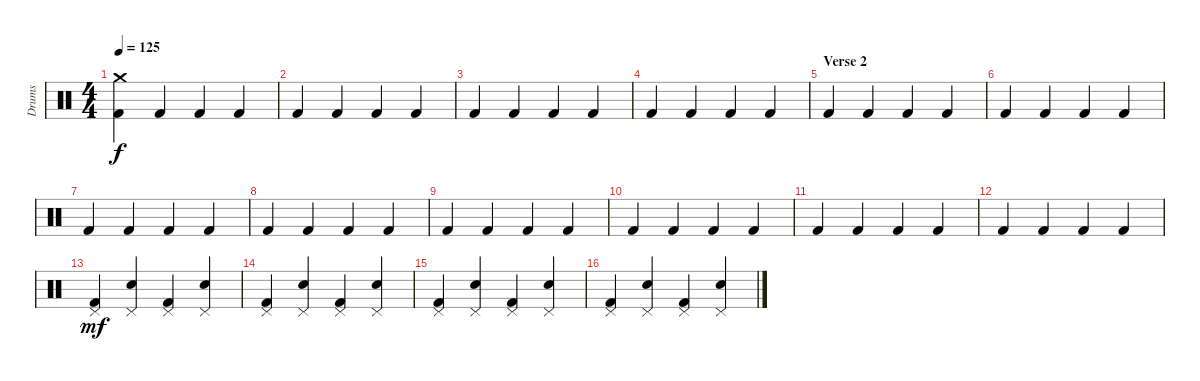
\track ("Drums" "Drums") {instrument percussion}
\staff {score}
\articulation defaults
\ts (4 4)
\tempo 125
\clef neutral
\ks c
("Crash medium (hit)" "Kick (hit) 2").4{dy f} "Kick (hit) 2".4 "Kick (hit) 2".4 "Kick (hit) 2".4 |
"Kick (hit) 2".4 "Kick (hit) 2".4 "Kick (hit) 2".4 "Kick (hit) 2".4 |
"Kick (hit) 2".4 "Kick (hit) 2".4 "Kick (hit) 2".4 "Kick (hit) 2".4 |
"Kick (hit) 2".4 "Kick (hit) 2".4 "Kick (hit) 2".4 "Kick (hit) 2".4 |
\section ("" "Verse 2")
"Kick (hit) 2".4 "Kick (hit) 2".4 "Kick (hit) 2".4 "Kick (hit) 2".4 |
"Kick (hit) 2".4 "Kick (hit) 2".4 "Kick (hit) 2".4 "Kick (hit) 2".4 |
"Kick (hit) 2".4 "Kick (hit) 2".4 "Kick (hit) 2".4 "Kick (hit) 2".4 |
"Kick (hit) 2".4 "Kick (hit) 2".4 "Kick (hit) 2".4 "Kick (hit) 2".4 |
"Kick (hit) 2".4 "Kick (hit) 2".4 "Kick (hit) 2".4 "Kick (hit) 2".4 |
"Kick (hit) 2".4 "Kick (hit) 2".4 "Kick (hit) 2".4 "Kick (hit) 2".4 |
"Kick (hit) 2".4 "Kick (hit) 2".4 "Kick (hit) 2".4 "Kick (hit) 2".4 |
"Kick (hit) 2".4 "Kick (hit) 2".4 "Kick (hit) 2".4 "Kick (hit) 2".4 |
("Pedal Hi-Hat (hit)" "Kick (hit) 2").4{dy mf} ("Pedal Hi-Hat (hit)" "Electric Snare (hit)").4 ("Pedal Hi-Hat (hit)" "Kick (hit) 2").4 ("Pedal Hi-Hat (hit)" "Electric Snare (hit)").4 |
("Pedal Hi-Hat (hit)" "Kick (hit) 2").4 ("Pedal Hi-Hat (hit)" "Electric Snare (hit)").4 ("Pedal Hi-Hat (hit)" "Kick (hit) 2").4 ("Pedal Hi-Hat (hit)" "Electric Snare (hit)").4 |
("Pedal Hi-Hat (hit)" "Kick (hit) 2").4 ("Pedal Hi-Hat (hit)" "Electric Snare (hit)").4 ("Pedal Hi-Hat (hit)" "Kick (hit) 2").4 ("Pedal Hi-Hat (hit)" "Electric Snare (hit)").4 |
("Pedal Hi-Hat (hit)" "Kick (hit) 2").4 ("Pedal Hi-Hat (hit)" "Electric Snare (hit)").4 ("Pedal Hi-Hat (hit)" "Kick (hit) 2").4 ("Pedal Hi-Hat (hit)" "Electric Snare (hit)").4
